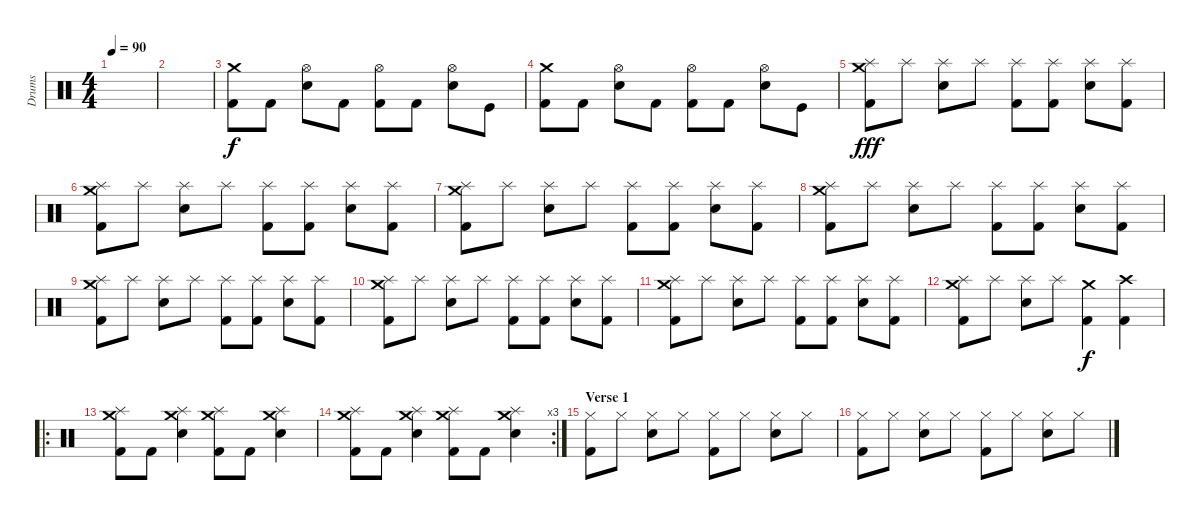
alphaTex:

\track ("Drums" "Drums") {instrument percussion}
\staff {score}
\articulation defaults
\ts (4 4)
\tempo 90
\clef neutral
\ks c
|
|
("Crash medium (hit)" "Kick (hit) 2").8 "Kick (hit) 2".8 ("Hi-Hat (open)" "Electric Snare (hit)").8 "Kick (hit) 2".8 ("Hi-Hat (open)" "Kick (hit) 2").8 "Kick (hit) 2".8 ("Hi-Hat (open)" "Electric Snare (hit)").8 "Kick (hit)".8 |
("Crash medium (hit)" "Kick (hit) 2").8 "Kick (hit) 2".8 ("Hi-Hat (open)" "Electric Snare (hit)").8 "Kick (hit) 2".8 ("Hi-Hat (open)" "Kick (hit) 2").8 "Kick (hit) 2".8 ("Hi-Hat (open)" "Electric Snare (hit)").8 "Kick (hit)".8 |
("Splash (hit)" "Crash medium (hit)" "Kick (hit) 2").8{dy fff} "Splash (hit)".8 ("Splash (hit)" "Electric Snare (hit)").8 "Splash (hit)".8 ("Splash (hit)" "Kick (hit) 2").8 ("Splash (hit)" "Kick (hit) 2").8 ("Splash (hit)" "Electric Snare (hit)").8 ("Splash (hit)" "Kick (hit) 2").8 |
("Splash (hit)" "Crash medium (hit)" "Kick (hit) 2").8 "Splash (hit)".8 ("Splash (hit)" "Electric Snare (hit)").8 "Splash (hit)".8 ("Splash (hit)" "Kick (hit) 2").8 ("Splash (hit)" "Kick (hit) 2").8 ("Splash (hit)" "Electric Snare (hit)").8 ("Splash (hit)" "Kick (hit) 2").8 |
("Splash (hit)" "Crash medium (hit)" "Kick (hit) 2").8 "Splash (hit)".8 ("Splash (hit)" "Electric Snare (hit)").8 "Splash (hit)".8 ("Splash (hit)" "Kick (hit) 2").8 ("Splash (hit)" "Kick (hit) 2").8 ("Splash (hit)" "Electric Snare (hit)").8 ("Splash (hit)" "Kick (hit) 2").8 |
("Splash (hit)" "Crash medium (hit)" "Kick (hit) 2").8 "Splash (hit)".8 ("Splash (hit)" "Electric Snare (hit)").8 "Splash (hit)".8 ("Splash (hit)" "Kick (hit) 2").8 ("Splash (hit)" "Kick (hit) 2").8 ("Splash (hit)" "Electric Snare (hit)").8 ("Splash (hit)" "Kick (hit) 2").8 |
("Splash (hit)" "Crash medium (hit)" "Kick (hit) 2").8 "Splash (hit)".8 ("Splash (hit)" "Electric Snare (hit)").8 "Splash (hit)".8 ("Splash (hit)" "Kick (hit) 2").8 ("Splash (hit)" "Kick (hit) 2").8 ("Splash (hit)" "Electric Snare (hit)").8 ("Splash (hit)" "Kick (hit) 2").8 |
("Splash (hit)" "Crash medium (hit)" "Kick (hit) 2").8 "Splash (hit)".8 ("Splash (hit)" "Electric Snare (hit)").8 "Splash (hit)".8 ("Splash (hit)" "Kick (hit) 2").8 ("Splash (hit)" "Kick (hit) 2").8 ("Splash (hit)" "Electric Snare (hit)").8 ("Splash (hit)" "Kick (hit) 2").8 |
("Splash (hit)" "Crash medium (hit)" "Kick (hit) 2").8 "Splash (hit)".8 ("Splash (hit)" "Electric Snare (hit)").8 "Splash (hit)".8 ("Splash (hit)" "Kick (hit) 2").8 ("Splash (hit)" "Kick (hit) 2").8 ("Splash (hit)" "Electric Snare (hit)").8 ("Splash (hit)" "Kick (hit) 2").8 |
("Splash (hit)" "Crash medium (hit)" "Kick (hit) 2").8 "Splash (hit)".8 ("Splash (hit)" "Electric Snare (hit)").8 "Splash (hit)".8 ("Crash medium (hit)" "Kick (hit) 2").4{dy f} ("Crash high (hit)" "Kick (hit) 2").4 |
\ro
("Crash medium (hit)" "Kick (hit) 2" "Splash (hit)").8 "Kick (hit) 2".8 ("Crash medium (hit)" "Electric Snare (hit)" "Splash (hit)").4 ("Crash medium (hit)" "Kick (hit) 2" "Splash (hit)").8 "Kick (hit) 2".8 ("Crash medium (hit)" "Electric Snare (hit)" "Splash (hit)").4 |
\rc 3
("Crash medium (hit)" "Kick (hit) 2" "Splash (hit)").8 "Kick (hit) 2".8 ("Crash medium (hit)" "Electric Snare (hit)" "Splash (hit)").4 ("Crash medium (hit)" "Kick (hit) 2" "Splash (hit)").8 "Kick (hit) 2".8 ("Crash medium (hit)" "Electric Snare (hit)" "Splash (hit)").4 |
\section ("" "Verse 1")
("Hi-Hat (closed)" "Kick (hit) 2").8 "Hi-Hat (closed)".8 ("Hi-Hat (closed)" "Electric Snare (hit)").8 "Hi-Hat (closed)".8 ("Hi-Hat (closed)" "Kick (hit) 2").8 "Hi-Hat (closed)".8 ("Hi-Hat (closed)" "Electric Snare (hit)").8 "Hi-Hat (closed)".8 |
("Hi-Hat (closed)" "Kick (hit) 2").8 "Hi-Hat (closed)".8 ("Hi-Hat (closed)" "Electric Snare (hit)").8 "Hi-Hat (closed)".8 ("Hi-Hat (closed)" "Kick (hit) 2").8 "Hi-Hat (closed)".8 ("Hi-Hat (closed)" "Electric Snare (hit)").8 "Hi-Hat (closed)".8
